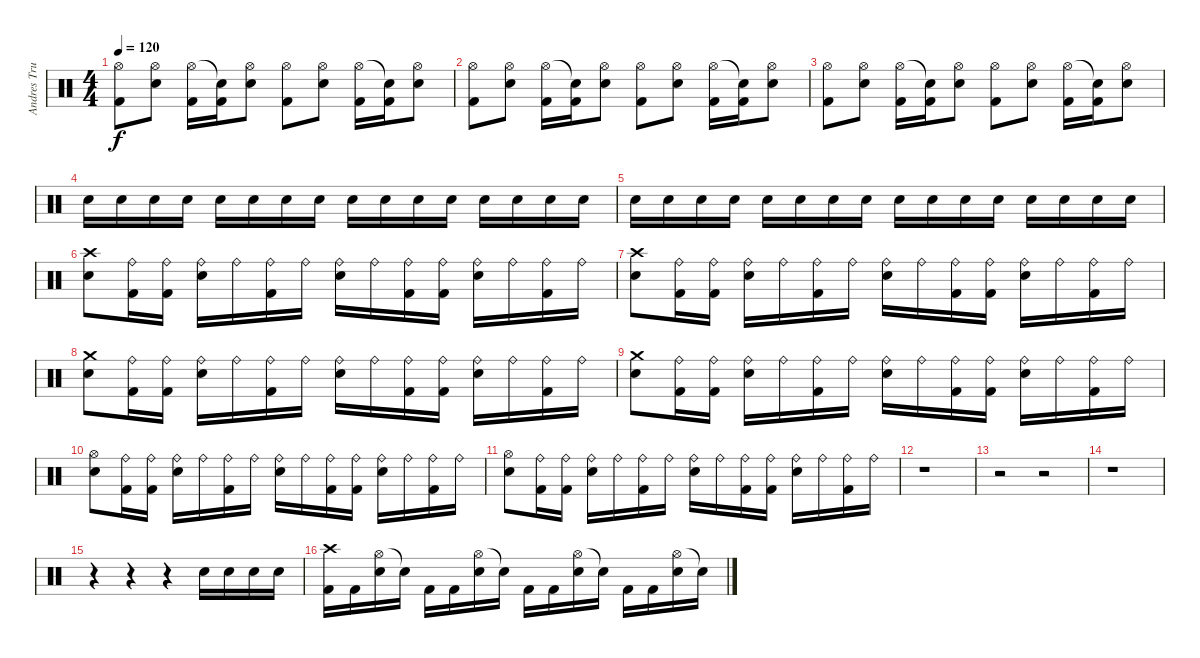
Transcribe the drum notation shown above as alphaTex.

\track ("Andres Trujillo" "Andres Tru") {instrument percussion}
\staff {score}
\articulation defaults
\ts (4 4)
\tempo 120
\clef neutral
\ks c
("Hi-Hat (open)" "Kick (hit) 2").8{dy f} ("Hi-Hat (open)" "Electric Snare (hit)").8 ("Hi-Hat (open)" "Kick (hit) 2").16 ("Snare (hit)"{t} "Kick (hit) 2").16 ("Hi-Hat (open)" "Electric Snare (hit)").8 ("Hi-Hat (open)" "Kick (hit) 2").8 ("Hi-Hat (open)" "Electric Snare (hit)").8 ("Hi-Hat (open)" "Kick (hit) 2").16 ("Snare (hit)"{t} "Kick (hit) 2").16 ("Hi-Hat (open)" "Electric Snare (hit)").8 |
("Hi-Hat (open)" "Kick (hit) 2").8 ("Hi-Hat (open)" "Electric Snare (hit)").8 ("Hi-Hat (open)" "Kick (hit) 2").16 ("Snare (hit)"{t} "Kick (hit) 2").16 ("Hi-Hat (open)" "Electric Snare (hit)").8 ("Hi-Hat (open)" "Kick (hit) 2").8 ("Hi-Hat (open)" "Electric Snare (hit)").8 ("Hi-Hat (open)" "Kick (hit) 2").16 ("Snare (hit)"{t} "Kick (hit) 2").16 ("Hi-Hat (open)" "Electric Snare (hit)").8 |
("Hi-Hat (open)" "Kick (hit) 2").8 ("Hi-Hat (open)" "Electric Snare (hit)").8 ("Hi-Hat (open)" "Kick (hit) 2").16 ("Snare (hit)"{t} "Kick (hit) 2").16 ("Hi-Hat (open)" "Electric Snare (hit)").8 ("Hi-Hat (open)" "Kick (hit) 2").8 ("Hi-Hat (open)" "Electric Snare (hit)").8 ("Hi-Hat (open)" "Kick (hit) 2").16 ("Snare (hit)"{t} "Kick (hit) 2").16 ("Hi-Hat (open)" "Electric Snare (hit)").8 |
"Electric Snare (hit)".16{volume 0} "Electric Snare (hit)".16{volume 16} "Electric Snare (hit)".16 "Electric Snare (hit)".16 "Electric Snare (hit)".16 "Electric Snare (hit)".16 "Electric Snare (hit)".16 "Electric Snare (hit)".16 "Electric Snare (hit)".16 "Electric Snare (hit)".16 "Electric Snare (hit)".16 "Electric Snare (hit)".16 "Electric Snare (hit)".16 "Electric Snare (hit)".16 "Electric Snare (hit)".16 "Electric Snare (hit)".16 |
"Electric Snare (hit)".16 "Electric Snare (hit)".16 "Electric Snare (hit)".16 "Electric Snare (hit)".16 "Electric Snare (hit)".16 "Electric Snare (hit)".16 "Electric Snare (hit)".16 "Electric Snare (hit)".16 "Electric Snare (hit)".16 "Electric Snare (hit)".16 "Electric Snare (hit)".16 "Electric Snare (hit)".16 "Electric Snare (hit)".16 "Electric Snare (hit)".16 "Electric Snare (hit)".16 "Electric Snare (hit)".16 |
("Crash high (hit)" "Electric Snare (hit)").8 ("Ride (bell)" "Kick (hit) 2").16 ("Ride (bell)" "Kick (hit) 2").16 ("Ride (bell)" "Electric Snare (hit)").16 "Ride (bell)".16 ("Ride (bell)" "Kick (hit) 2").16 "Ride (bell)".16 ("Ride (bell)" "Electric Snare (hit)").16 "Ride (bell)".16 ("Ride (bell)" "Kick (hit) 2").16 ("Ride (bell)" "Kick (hit) 2").16 ("Ride (bell)" "Electric Snare (hit)").16 "Ride (bell)".16 ("Ride (bell)" "Kick (hit) 2").16 "Ride (bell)".16 |
("Crash high (hit)" "Electric Snare (hit)").8 ("Ride (bell)" "Kick (hit) 2").16 ("Ride (bell)" "Kick (hit) 2").16 ("Ride (bell)" "Electric Snare (hit)").16 "Ride (bell)".16 ("Ride (bell)" "Kick (hit) 2").16 "Ride (bell)".16 ("Ride (bell)" "Electric Snare (hit)").16 "Ride (bell)".16 ("Ride (bell)" "Kick (hit) 2").16 ("Ride (bell)" "Kick (hit) 2").16 ("Ride (bell)" "Electric Snare (hit)").16 "Ride (bell)".16 ("Ride (bell)" "Kick (hit) 2").16 "Ride (bell)".16 |
("Crash medium (hit)" "Electric Snare (hit)").8 ("Ride (bell)" "Kick (hit) 2").16 ("Ride (bell)" "Kick (hit) 2").16 ("Ride (bell)" "Electric Snare (hit)").16 "Ride (bell)".16 ("Ride (bell)" "Kick (hit) 2").16 "Ride (bell)".16 ("Ride (bell)" "Electric Snare (hit)").16 "Ride (bell)".16 ("Ride (bell)" "Kick (hit) 2").16 ("Ride (bell)" "Kick (hit) 2").16 ("Ride (bell)" "Electric Snare (hit)").16 "Ride (bell)".16 ("Ride (bell)" "Kick (hit) 2").16 "Ride (bell)".16 |
("Crash medium (hit)" "Electric Snare (hit)").8 ("Ride (bell)" "Kick (hit) 2").16 ("Ride (bell)" "Kick (hit) 2").16 ("Ride (bell)" "Electric Snare (hit)").16 "Ride (bell)".16 ("Ride (bell)" "Kick (hit) 2").16 "Ride (bell)".16 ("Ride (bell)" "Electric Snare (hit)").16 "Ride (bell)".16 ("Ride (bell)" "Kick (hit) 2").16 ("Ride (bell)" "Kick (hit) 2").16 ("Ride (bell)" "Electric Snare (hit)").16 "Ride (bell)".16 ("Ride (bell)" "Kick (hit) 2").16 "Ride (bell)".16 |
("Hi-Hat (open)" "Electric Snare (hit)").8 ("Ride (bell)" "Kick (hit) 2").16 ("Ride (bell)" "Kick (hit) 2").16 ("Ride (bell)" "Electric Snare (hit)").16 "Ride (bell)".16 ("Ride (bell)" "Kick (hit) 2").16 "Ride (bell)".16 ("Ride (bell)" "Electric Snare (hit)").16 "Ride (bell)".16 ("Ride (bell)" "Kick (hit) 2").16 ("Ride (bell)" "Kick (hit) 2").16 ("Ride (bell)" "Electric Snare (hit)").16 "Ride (bell)".16 ("Ride (bell)" "Kick (hit) 2").16 "Ride (bell)".16 |
("Hi-Hat (open)" "Electric Snare (hit)").8 ("Ride (bell)" "Kick (hit) 2").16 ("Ride (bell)" "Kick (hit) 2").16 ("Ride (bell)" "Electric Snare (hit)").16 "Ride (bell)".16 ("Ride (bell)" "Kick (hit) 2").16 "Ride (bell)".16 ("Ride (bell)" "Electric Snare (hit)").16 "Ride (bell)".16 ("Ride (bell)" "Kick (hit) 2").16 ("Ride (bell)" "Kick (hit) 2").16 ("Ride (bell)" "Electric Snare (hit)").16 "Ride (bell)".16 ("Ride (bell)" "Kick (hit) 2").16 "Ride (bell)".16 |
r.1 |
r.2 r.2 |
r.1 |
r.4 r.4 r.4 "Electric Snare (hit)".16 "Electric Snare (hit)".16 "Electric Snare (hit)".16 "Electric Snare (hit)".16 |
("Crash high (hit)" "Kick (hit) 2").16 "Kick (hit) 2".16 ("Hi-Hat (open)" "Electric Snare (hit)").16 "Snare (hit)"{t}.16 "Kick (hit) 2".16 "Kick (hit) 2".16 ("Hi-Hat (open)" "Electric Snare (hit)").16 "Snare (hit)"{t}.16 "Kick (hit) 2".16 "Kick (hit) 2".16 ("Hi-Hat (open)" "Electric Snare (hit)").16 "Snare (hit)"{t}.16 "Kick (hit) 2".16 "Kick (hit) 2".16 ("Hi-Hat (open)" "Electric Snare (hit)").16 "Snare (hit)"{t}.16
